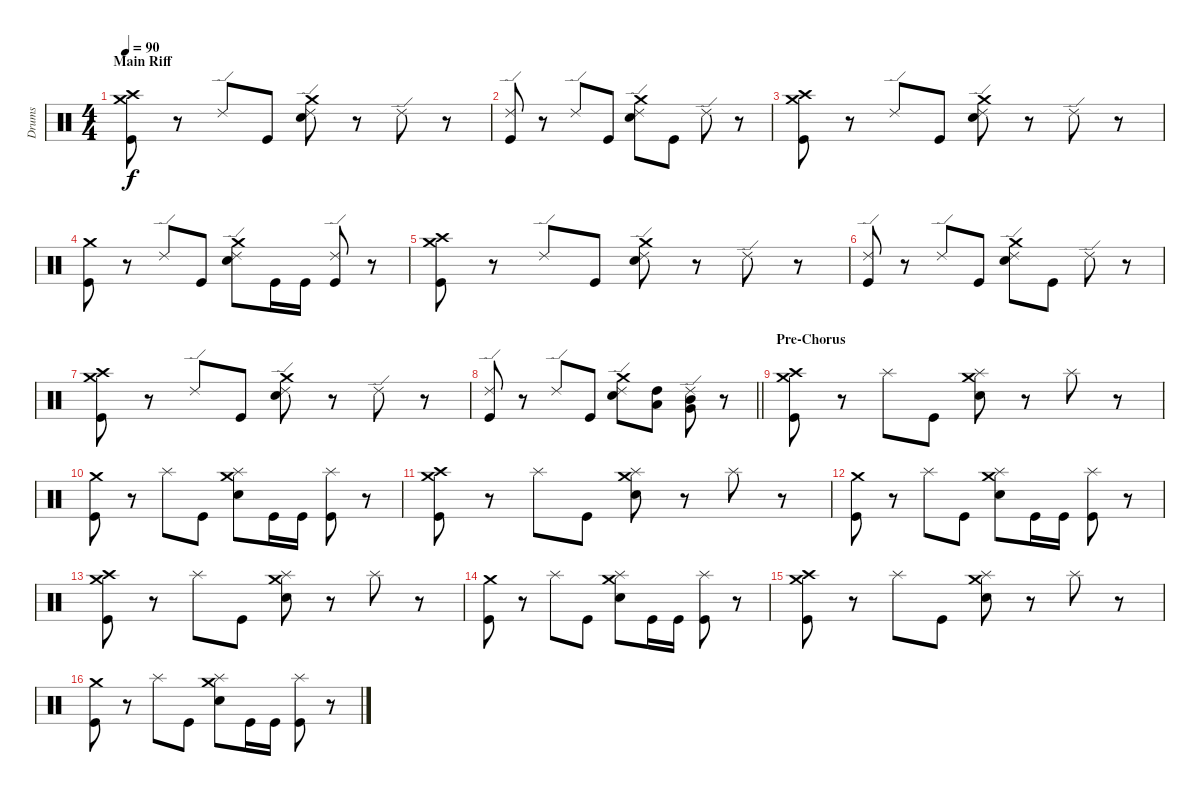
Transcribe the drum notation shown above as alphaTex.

\track ("Drums" "Drums") {instrument percussion}
\staff {score}
\articulation defaults
\ts (4 4)
\section ("" "Main Riff")
\tempo 90
\clef neutral
\ks c
("Crash high (hit)" "Kick (hit)" "Crash medium (hit)").8{dy f} r.8 "Ride (edge) 2".8 "Kick (hit)".8 ("Ride (edge) 2" "Snare (hit) 2" "Crash medium (hit)").8 r.8 "Ride (edge) 2".8 r.8 |
("Ride (edge) 2" "Kick (hit)").8 r.8 "Ride (edge) 2".8 "Kick (hit)".8 ("Ride (edge) 2" "Snare (hit) 2" "Crash medium (hit)").8 "Kick (hit)".8 "Ride (edge) 2".8 r.8 |
("Crash high (hit)" "Kick (hit)" "Crash medium (hit)").8 r.8 "Ride (edge) 2".8 "Kick (hit)".8 ("Ride (edge) 2" "Snare (hit) 2" "Crash medium (hit)").8 r.8 "Ride (edge) 2".8 r.8 |
("Crash medium (hit)" "Kick (hit)").8 r.8 "Ride (edge) 2".8 "Kick (hit)".8 ("Ride (edge) 2" "Snare (hit) 2" "Crash medium (hit)").8 "Kick (hit)".16 "Kick (hit)".16 ("Ride (edge) 2" "Kick (hit)").8 r.8 |
("Crash high (hit)" "Kick (hit)" "Crash medium (hit)").8 r.8 "Ride (edge) 2".8 "Kick (hit)".8 ("Ride (edge) 2" "Snare (hit) 2" "Crash medium (hit)").8 r.8 "Ride (edge) 2".8 r.8 |
("Ride (edge) 2" "Kick (hit)").8 r.8 "Ride (edge) 2".8 "Kick (hit)".8 ("Ride (edge) 2" "Snare (hit) 2" "Crash medium (hit)").8 "Kick (hit)".8 "Ride (edge) 2".8 r.8 |
("Crash high (hit)" "Kick (hit)" "Crash medium (hit)").8 r.8 "Ride (edge) 2".8 "Kick (hit)".8 ("Ride (edge) 2" "Snare (hit) 2" "Crash medium (hit)").8 r.8 "Ride (edge) 2".8 r.8 |
\barLineRight lightlight
("Ride (edge) 2" "Kick (hit)").8 r.8 "Ride (edge) 2".8 "Kick (hit)".8 ("Ride (edge) 2" "Snare (hit) 2" "Crash medium (hit)").8 ("Low Tom (hit)" "High Tom (hit)").8 ("Ride (edge) 2" "Mid Tom (hit)" "Very Low Tom (hit)").8 r.8 |
\section ("" "Pre-Chorus")
("Crash high (hit)" "Kick (hit)" "Crash medium (hit)").8 r.8 "Splash (hit)".8 "Kick (hit)".8 ("Splash (hit)" "Snare (hit) 2" "Crash medium (hit)").8 r.8 "Splash (hit)".8 r.8 |
("Crash medium (hit)" "Kick (hit)").8 r.8 "Splash (hit)".8 "Kick (hit)".8 ("Splash (hit)" "Snare (hit) 2" "Crash medium (hit)").8 "Kick (hit)".16 "Kick (hit)".16 ("Splash (hit)" "Kick (hit)").8 r.8 |
("Crash high (hit)" "Kick (hit)" "Crash medium (hit)").8 r.8 "Splash (hit)".8 "Kick (hit)".8 ("Splash (hit)" "Snare (hit) 2" "Crash medium (hit)").8 r.8 "Splash (hit)".8 r.8 |
("Crash medium (hit)" "Kick (hit)").8 r.8 "Splash (hit)".8 "Kick (hit)".8 ("Splash (hit)" "Snare (hit) 2" "Crash medium (hit)").8 "Kick (hit)".16 "Kick (hit)".16 ("Splash (hit)" "Kick (hit)").8 r.8 |
("Crash high (hit)" "Kick (hit)" "Crash medium (hit)").8 r.8 "Splash (hit)".8 "Kick (hit)".8 ("Splash (hit)" "Snare (hit) 2" "Crash medium (hit)").8 r.8 "Splash (hit)".8 r.8 |
("Crash medium (hit)" "Kick (hit)").8 r.8 "Splash (hit)".8 "Kick (hit)".8 ("Splash (hit)" "Snare (hit) 2" "Crash medium (hit)").8 "Kick (hit)".16 "Kick (hit)".16 ("Splash (hit)" "Kick (hit)").8 r.8 |
("Crash high (hit)" "Kick (hit)" "Crash medium (hit)").8 r.8 "Splash (hit)".8 "Kick (hit)".8 ("Splash (hit)" "Snare (hit) 2" "Crash medium (hit)").8 r.8 "Splash (hit)".8 r.8 |
("Crash medium (hit)" "Kick (hit)").8 r.8 "Splash (hit)".8 "Kick (hit)".8 ("Splash (hit)" "Snare (hit) 2" "Crash medium (hit)").8 "Kick (hit)".16 "Kick (hit)".16 ("Splash (hit)" "Kick (hit)").8 r.8
